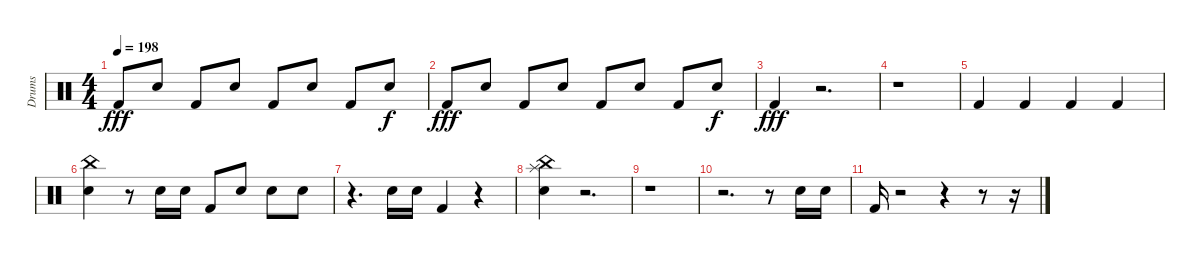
\track ("Drums" "Drums") {instrument percussion}
\staff {score}
\articulation defaults
\ts (4 4)
\tempo 198
\clef neutral
\ks c "Kick (hit) 2".8{dy fff} "Snare (hit) 2".8 "Kick (hit) 2".8 "Snare (hit) 2".8 "Kick (hit) 2".8 "Snare (hit) 2".8 "Kick (hit) 2".8 "Snare (hit) 2".8{dy f}
|
"Kick (hit) 2".8{dy fff} "Snare (hit) 2".8 "Kick (hit) 2".8 "Snare (hit) 2".8 "Kick (hit) 2".8 "Snare (hit) 2".8 "Kick (hit) 2".8 "Snare (hit) 2".8{dy f} |
"Kick (hit) 2".4{dy fff} r.2{d} |
r.1 |
"Kick (hit) 2".4 "Kick (hit) 2".4 "Kick (hit) 2".4 "Kick (hit) 2".4 |
("China (hit)" "Snare (hit) 2").4 r.8 "Snare (hit) 2".16 "Snare (hit) 2".16 "Kick (hit) 2".8 "Snare (hit) 2".8 "Snare (hit) 2".8 "Snare (hit) 2".8 |
r.4{d} "Snare (hit) 2".16 "Snare (hit) 2".16 "Kick (hit) 2".4 r.4 |
("China (hit)" "Splash (hit)" "Snare (hit) 2").4 r.2{d} |
r.1 |
r.2{d} r.8 "Snare (hit) 2".16 "Snare (hit) 2".16 |
"Kick (hit) 2".16 r.2 r.4 r.8 r.16
